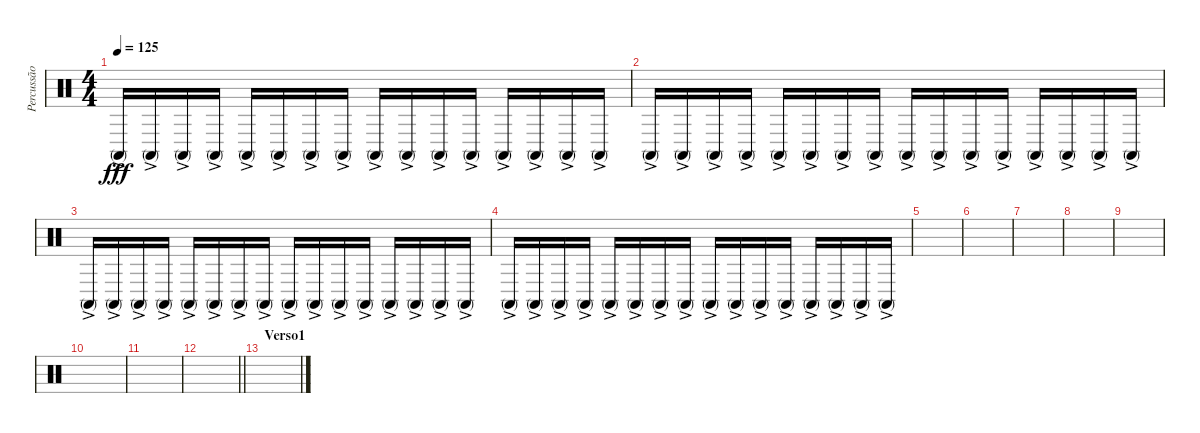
\track ("Percussão" "Percussão") {instrument percussion}
\staff {score}
\articulation defaults
\ts (4 4)
\tempo 125
\clef neutral
\ks c "Conga high (mute)"{ac}.16{dy fff} "Conga high (mute)"{ac}.16 "Conga high (mute)"{ac}.16 "Conga high (mute)"{ac}.16 "Conga high (mute)"{ac}.16 "Conga high (mute)"{ac}.16 "Conga high (mute)"{ac}.16 "Conga high (mute)"{ac}.16 "Conga high (mute)"{ac}.16 "Conga high (mute)"{ac}.16 "Conga high (mute)"{ac}.16 "Conga high (mute)"{ac}.16 "Conga high (mute)"{ac}.16 "Conga high (mute)"{ac}.16 "Conga high (mute)"{ac}.16 "Conga high (mute)"{ac}.16
|
"Conga high (mute)"{ac}.16 "Conga high (mute)"{ac}.16 "Conga high (mute)"{ac}.16 "Conga high (mute)"{ac}.16 "Conga high (mute)"{ac}.16 "Conga high (mute)"{ac}.16 "Conga high (mute)"{ac}.16 "Conga high (mute)"{ac}.16 "Conga high (mute)"{ac}.16 "Conga high (mute)"{ac}.16 "Conga high (mute)"{ac}.16 "Conga high (mute)"{ac}.16 "Conga high (mute)"{ac}.16 "Conga high (mute)"{ac}.16 "Conga high (mute)"{ac}.16 "Conga high (mute)"{ac}.16 |
"Conga high (mute)"{ac}.16 "Conga high (mute)"{ac}.16 "Conga high (mute)"{ac}.16 "Conga high (mute)"{ac}.16 "Conga high (mute)"{ac}.16 "Conga high (mute)"{ac}.16 "Conga high (mute)"{ac}.16 "Conga high (mute)"{ac}.16 "Conga high (mute)"{ac}.16 "Conga high (mute)"{ac}.16 "Conga high (mute)"{ac}.16 "Conga high (mute)"{ac}.16 "Conga high (mute)"{ac}.16 "Conga high (mute)"{ac}.16 "Conga high (mute)"{ac}.16 "Conga high (mute)"{ac}.16 |
"Conga high (mute)"{ac}.16 "Conga high (mute)"{ac}.16 "Conga high (mute)"{ac}.16 "Conga high (mute)"{ac}.16 "Conga high (mute)"{ac}.16 "Conga high (mute)"{ac}.16 "Conga high (mute)"{ac}.16 "Conga high (mute)"{ac}.16 "Conga high (mute)"{ac}.16 "Conga high (mute)"{ac}.16 "Conga high (mute)"{ac}.16 "Conga high (mute)"{ac}.16 "Conga high (mute)"{ac}.16 "Conga high (mute)"{ac}.16 "Conga high (mute)"{ac}.16 "Conga high (mute)"{ac}.16 |
|
|
|
|
|
|
|
\barLineRight lightlight
|
\section ("" "Verso1")
